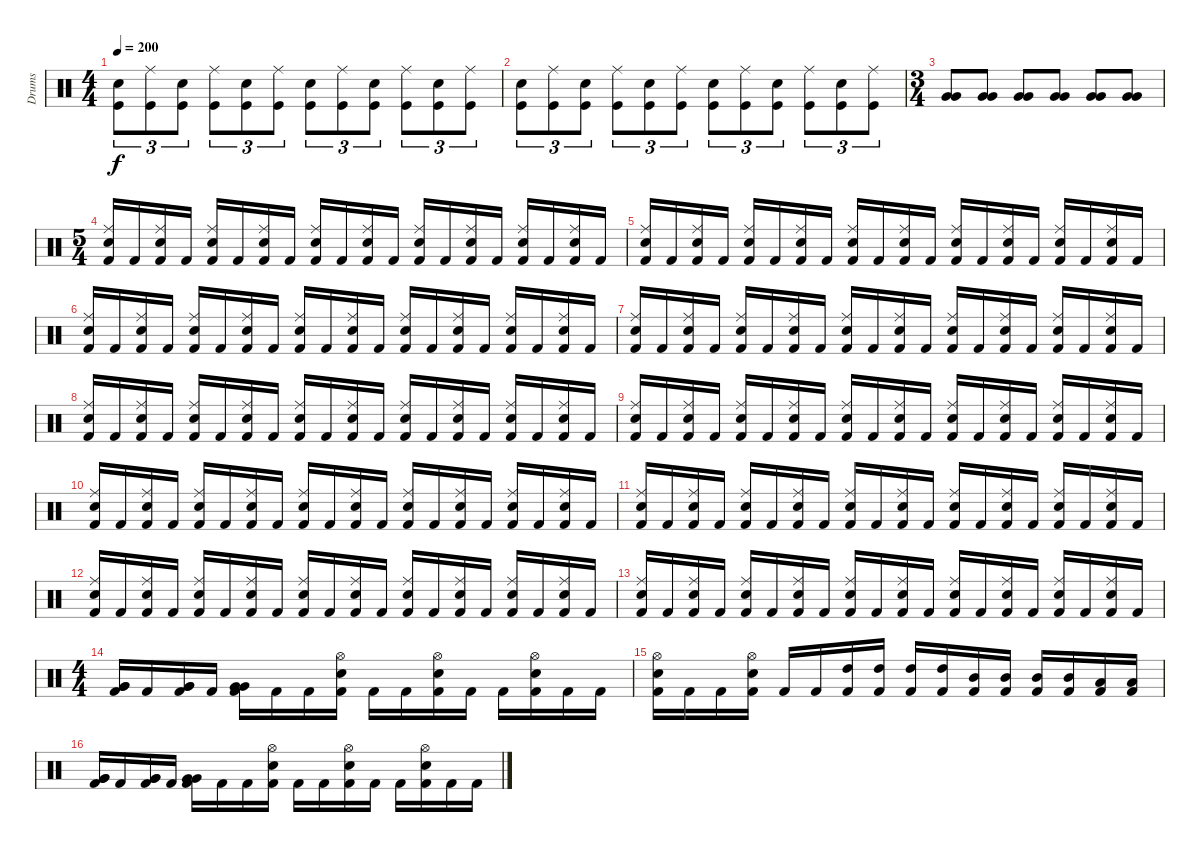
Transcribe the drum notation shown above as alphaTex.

\track ("Drums" "Drums") {instrument percussion}
\staff {score}
\articulation defaults
\ts (4 4)
\tempo 200
\clef neutral
\ks c
("Electric Snare (hit)" "Kick (hit)").8{tu (3 2) dy f} ("Ride (middle)" "Kick (hit)").8{tu (3 2)} ("Electric Snare (hit)" "Kick (hit)").8{tu (3 2)} ("Ride (middle)" "Kick (hit)").8{tu (3 2)} ("Electric Snare (hit)" "Kick (hit)").8{tu (3 2)} ("Ride (middle)" "Kick (hit)").8{tu (3 2)} ("Electric Snare (hit)" "Kick (hit)").8{tu (3 2)} ("Ride (middle)" "Kick (hit)").8{tu (3 2)} ("Electric Snare (hit)" "Kick (hit)").8{tu (3 2)} ("Ride (middle)" "Kick (hit)").8{tu (3 2)} ("Electric Snare (hit)" "Kick (hit)").8{tu (3 2)} ("Ride (middle)" "Kick (hit)").8{tu (3 2)} |
("Electric Snare (hit)" "Kick (hit)").8{tu (3 2)} ("Ride (middle)" "Kick (hit)").8{tu (3 2)} ("Electric Snare (hit)" "Kick (hit)").8{tu (3 2)} ("Ride (middle)" "Kick (hit)").8{tu (3 2)} ("Electric Snare (hit)" "Kick (hit)").8{tu (3 2)} ("Ride (middle)" "Kick (hit)").8{tu (3 2)} ("Electric Snare (hit)" "Kick (hit)").8{tu (3 2)} ("Ride (middle)" "Kick (hit)").8{tu (3 2)} ("Electric Snare (hit)" "Kick (hit)").8{tu (3 2)} ("Ride (middle)" "Kick (hit)").8{tu (3 2)} ("Electric Snare (hit)" "Kick (hit)").8{tu (3 2)} ("Ride (middle)" "Kick (hit)").8{tu (3 2)} |
\ts (3 4)
("Very Low Tom (hit)" "Very Low Tom (hit)").8 ("Very Low Tom (hit)" "Very Low Tom (hit)").8 ("Very Low Tom (hit)" "Very Low Tom (hit)").8 ("Very Low Tom (hit)" "Very Low Tom (hit)").8 ("Very Low Tom (hit)" "Very Low Tom (hit)").8 ("Very Low Tom (hit)" "Very Low Tom (hit)").8 |
\ts (5 4)
("Ride (middle)" "Electric Snare (hit)" "Kick (hit) 2").16 "Kick (hit) 2".16 ("Ride (middle)" "Electric Snare (hit)" "Kick (hit) 2").16 "Kick (hit) 2".16 ("Ride (middle)" "Electric Snare (hit)" "Kick (hit) 2").16 "Kick (hit) 2".16 ("Ride (middle)" "Electric Snare (hit)" "Kick (hit) 2").16 "Kick (hit) 2".16 ("Ride (middle)" "Electric Snare (hit)" "Kick (hit) 2").16 "Kick (hit) 2".16 ("Ride (middle)" "Electric Snare (hit)" "Kick (hit) 2").16 "Kick (hit) 2".16 ("Ride (middle)" "Electric Snare (hit)" "Kick (hit) 2").16 "Kick (hit) 2".16 ("Ride (middle)" "Electric Snare (hit)" "Kick (hit) 2").16 "Kick (hit) 2".16 ("Ride (middle)" "Electric Snare (hit)" "Kick (hit) 2").16 "Kick (hit) 2".16 ("Ride (middle)" "Electric Snare (hit)" "Kick (hit) 2").16 "Kick (hit) 2".16 |
("Ride (middle)" "Electric Snare (hit)" "Kick (hit) 2").16 "Kick (hit) 2".16 ("Ride (middle)" "Electric Snare (hit)" "Kick (hit) 2").16 "Kick (hit) 2".16 ("Ride (middle)" "Electric Snare (hit)" "Kick (hit) 2").16 "Kick (hit) 2".16 ("Ride (middle)" "Electric Snare (hit)" "Kick (hit) 2").16 "Kick (hit) 2".16 ("Ride (middle)" "Electric Snare (hit)" "Kick (hit) 2").16 "Kick (hit) 2".16 ("Ride (middle)" "Electric Snare (hit)" "Kick (hit) 2").16 "Kick (hit) 2".16 ("Ride (middle)" "Electric Snare (hit)" "Kick (hit) 2").16 "Kick (hit) 2".16 ("Ride (middle)" "Electric Snare (hit)" "Kick (hit) 2").16 "Kick (hit) 2".16 ("Ride (middle)" "Electric Snare (hit)" "Kick (hit) 2").16 "Kick (hit) 2".16 ("Ride (middle)" "Electric Snare (hit)" "Kick (hit) 2").16 "Kick (hit) 2".16 |
("Ride (middle)" "Electric Snare (hit)" "Kick (hit) 2").16 "Kick (hit) 2".16 ("Ride (middle)" "Electric Snare (hit)" "Kick (hit) 2").16 "Kick (hit) 2".16 ("Ride (middle)" "Electric Snare (hit)" "Kick (hit) 2").16 "Kick (hit) 2".16 ("Ride (middle)" "Electric Snare (hit)" "Kick (hit) 2").16 "Kick (hit) 2".16 ("Ride (middle)" "Electric Snare (hit)" "Kick (hit) 2").16 "Kick (hit) 2".16 ("Ride (middle)" "Electric Snare (hit)" "Kick (hit) 2").16 "Kick (hit) 2".16 ("Ride (middle)" "Electric Snare (hit)" "Kick (hit) 2").16 "Kick (hit) 2".16 ("Ride (middle)" "Electric Snare (hit)" "Kick (hit) 2").16 "Kick (hit) 2".16 ("Ride (middle)" "Electric Snare (hit)" "Kick (hit) 2").16 "Kick (hit) 2".16 ("Ride (middle)" "Electric Snare (hit)" "Kick (hit) 2").16 "Kick (hit) 2".16 |
("Ride (middle)" "Electric Snare (hit)" "Kick (hit) 2").16 "Kick (hit) 2".16 ("Ride (middle)" "Electric Snare (hit)" "Kick (hit) 2").16 "Kick (hit) 2".16 ("Ride (middle)" "Electric Snare (hit)" "Kick (hit) 2").16 "Kick (hit) 2".16 ("Ride (middle)" "Electric Snare (hit)" "Kick (hit) 2").16 "Kick (hit) 2".16 ("Ride (middle)" "Electric Snare (hit)" "Kick (hit) 2").16 "Kick (hit) 2".16 ("Ride (middle)" "Electric Snare (hit)" "Kick (hit) 2").16 "Kick (hit) 2".16 ("Ride (middle)" "Electric Snare (hit)" "Kick (hit) 2").16 "Kick (hit) 2".16 ("Ride (middle)" "Electric Snare (hit)" "Kick (hit) 2").16 "Kick (hit) 2".16 ("Ride (middle)" "Electric Snare (hit)" "Kick (hit) 2").16 "Kick (hit) 2".16 ("Ride (middle)" "Electric Snare (hit)" "Kick (hit) 2").16 "Kick (hit) 2".16 |
("Ride (middle)" "Electric Snare (hit)" "Kick (hit) 2").16 "Kick (hit) 2".16 ("Ride (middle)" "Electric Snare (hit)" "Kick (hit) 2").16 "Kick (hit) 2".16 ("Ride (middle)" "Electric Snare (hit)" "Kick (hit) 2").16 "Kick (hit) 2".16 ("Ride (middle)" "Electric Snare (hit)" "Kick (hit) 2").16 "Kick (hit) 2".16 ("Ride (middle)" "Electric Snare (hit)" "Kick (hit) 2").16 "Kick (hit) 2".16 ("Ride (middle)" "Electric Snare (hit)" "Kick (hit) 2").16 "Kick (hit) 2".16 ("Ride (middle)" "Electric Snare (hit)" "Kick (hit) 2").16 "Kick (hit) 2".16 ("Ride (middle)" "Electric Snare (hit)" "Kick (hit) 2").16 "Kick (hit) 2".16 ("Ride (middle)" "Electric Snare (hit)" "Kick (hit) 2").16 "Kick (hit) 2".16 ("Ride (middle)" "Electric Snare (hit)" "Kick (hit) 2").16 "Kick (hit) 2".16 |
("Ride (middle)" "Electric Snare (hit)" "Kick (hit) 2").16 "Kick (hit) 2".16 ("Ride (middle)" "Electric Snare (hit)" "Kick (hit) 2").16 "Kick (hit) 2".16 ("Ride (middle)" "Electric Snare (hit)" "Kick (hit) 2").16 "Kick (hit) 2".16 ("Ride (middle)" "Electric Snare (hit)" "Kick (hit) 2").16 "Kick (hit) 2".16 ("Ride (middle)" "Electric Snare (hit)" "Kick (hit) 2").16 "Kick (hit) 2".16 ("Ride (middle)" "Electric Snare (hit)" "Kick (hit) 2").16 "Kick (hit) 2".16 ("Ride (middle)" "Electric Snare (hit)" "Kick (hit) 2").16 "Kick (hit) 2".16 ("Ride (middle)" "Electric Snare (hit)" "Kick (hit) 2").16 "Kick (hit) 2".16 ("Ride (middle)" "Electric Snare (hit)" "Kick (hit) 2").16 "Kick (hit) 2".16 ("Ride (middle)" "Electric Snare (hit)" "Kick (hit) 2").16 "Kick (hit) 2".16 |
("Ride (middle)" "Electric Snare (hit)" "Kick (hit) 2").16 "Kick (hit) 2".16 ("Ride (middle)" "Electric Snare (hit)" "Kick (hit) 2").16 "Kick (hit) 2".16 ("Ride (middle)" "Electric Snare (hit)" "Kick (hit) 2").16 "Kick (hit) 2".16 ("Ride (middle)" "Electric Snare (hit)" "Kick (hit) 2").16 "Kick (hit) 2".16 ("Ride (middle)" "Electric Snare (hit)" "Kick (hit) 2").16 "Kick (hit) 2".16 ("Ride (middle)" "Electric Snare (hit)" "Kick (hit) 2").16 "Kick (hit) 2".16 ("Ride (middle)" "Electric Snare (hit)" "Kick (hit) 2").16 "Kick (hit) 2".16 ("Ride (middle)" "Electric Snare (hit)" "Kick (hit) 2").16 "Kick (hit) 2".16 ("Ride (middle)" "Electric Snare (hit)" "Kick (hit) 2").16 "Kick (hit) 2".16 ("Ride (middle)" "Electric Snare (hit)" "Kick (hit) 2").16 "Kick (hit) 2".16 |
("Ride (middle)" "Electric Snare (hit)" "Kick (hit) 2").16 "Kick (hit) 2".16 ("Ride (middle)" "Electric Snare (hit)" "Kick (hit) 2").16 "Kick (hit) 2".16 ("Ride (middle)" "Electric Snare (hit)" "Kick (hit) 2").16 "Kick (hit) 2".16 ("Ride (middle)" "Electric Snare (hit)" "Kick (hit) 2").16 "Kick (hit) 2".16 ("Ride (middle)" "Electric Snare (hit)" "Kick (hit) 2").16 "Kick (hit) 2".16 ("Ride (middle)" "Electric Snare (hit)" "Kick (hit) 2").16 "Kick (hit) 2".16 ("Ride (middle)" "Electric Snare (hit)" "Kick (hit) 2").16 "Kick (hit) 2".16 ("Ride (middle)" "Electric Snare (hit)" "Kick (hit) 2").16 "Kick (hit) 2".16 ("Ride (middle)" "Electric Snare (hit)" "Kick (hit) 2").16 "Kick (hit) 2".16 ("Ride (middle)" "Electric Snare (hit)" "Kick (hit) 2").16 "Kick (hit) 2".16 |
("Ride (middle)" "Electric Snare (hit)" "Kick (hit) 2").16 "Kick (hit) 2".16 ("Ride (middle)" "Electric Snare (hit)" "Kick (hit) 2").16 "Kick (hit) 2".16 ("Ride (middle)" "Electric Snare (hit)" "Kick (hit) 2").16 "Kick (hit) 2".16 ("Ride (middle)" "Electric Snare (hit)" "Kick (hit) 2").16 "Kick (hit) 2".16 ("Ride (middle)" "Electric Snare (hit)" "Kick (hit) 2").16 "Kick (hit) 2".16 ("Ride (middle)" "Electric Snare (hit)" "Kick (hit) 2").16 "Kick (hit) 2".16 ("Ride (middle)" "Electric Snare (hit)" "Kick (hit) 2").16 "Kick (hit) 2".16 ("Ride (middle)" "Electric Snare (hit)" "Kick (hit) 2").16 "Kick (hit) 2".16 ("Ride (middle)" "Electric Snare (hit)" "Kick (hit) 2").16 "Kick (hit) 2".16 ("Ride (middle)" "Electric Snare (hit)" "Kick (hit) 2").16 "Kick (hit) 2".16 |
("Ride (middle)" "Electric Snare (hit)" "Kick (hit) 2").16 "Kick (hit) 2".16 ("Ride (middle)" "Electric Snare (hit)" "Kick (hit) 2").16 "Kick (hit) 2".16 ("Ride (middle)" "Electric Snare (hit)" "Kick (hit) 2").16 "Kick (hit) 2".16 ("Ride (middle)" "Electric Snare (hit)" "Kick (hit) 2").16 "Kick (hit) 2".16 ("Ride (middle)" "Electric Snare (hit)" "Kick (hit) 2").16 "Kick (hit) 2".16 ("Ride (middle)" "Electric Snare (hit)" "Kick (hit) 2").16 "Kick (hit) 2".16 ("Ride (middle)" "Electric Snare (hit)" "Kick (hit) 2").16 "Kick (hit) 2".16 ("Ride (middle)" "Electric Snare (hit)" "Kick (hit) 2").16 "Kick (hit) 2".16 ("Ride (middle)" "Electric Snare (hit)" "Kick (hit) 2").16 "Kick (hit) 2".16 ("Ride (middle)" "Electric Snare (hit)" "Kick (hit) 2").16 "Kick (hit) 2".16 |
\ts (4 4)
("Very Low Tom (hit)" "Very Low Tom (hit)" "Kick (hit) 2").16 "Kick (hit) 2".16 ("Very Low Tom (hit)" "Very Low Tom (hit)" "Kick (hit) 2").16 "Kick (hit) 2".16 ("Very Low Tom (hit)" "Very Low Tom (hit)" "Kick (hit) 2").16 "Kick (hit) 2".16 "Kick (hit) 2".16 ("Hi-Hat (open)" "Electric Snare (hit)" "Kick (hit) 2").16 "Kick (hit) 2".16 "Kick (hit) 2".16 ("Hi-Hat (open)" "Electric Snare (hit)" "Kick (hit) 2").16 "Kick (hit) 2".16 "Kick (hit) 2".16 ("Hi-Hat (open)" "Electric Snare (hit)" "Kick (hit) 2").16 "Kick (hit) 2".16 "Kick (hit) 2".16 |
("Hi-Hat (open)" "Electric Snare (hit)" "Kick (hit) 2").16 "Kick (hit) 2".16 "Kick (hit) 2".16 ("Hi-Hat (open)" "Electric Snare (hit)" "Kick (hit) 2").16 "Kick (hit) 2".16 "Kick (hit) 2".16 ("High Tom (hit)" "Kick (hit) 2").16 ("High Tom (hit)" "Kick (hit) 2").16 ("High Tom (hit)" "Kick (hit) 2").16 ("High Tom (hit)" "Kick (hit) 2").16 ("Mid Tom (hit)" "Kick (hit) 2").16 ("Mid Tom (hit)" "Kick (hit) 2").16 ("Mid Tom (hit)" "Kick (hit) 2").16 ("Mid Tom (hit)" "Kick (hit) 2").16 ("Low Tom (hit)" "Kick (hit) 2").16 ("Low Tom (hit)" "Kick (hit) 2").16 |
("Very Low Tom (hit)" "Very Low Tom (hit)" "Kick (hit) 2").16 "Kick (hit) 2".16 ("Very Low Tom (hit)" "Very Low Tom (hit)" "Kick (hit) 2").16 "Kick (hit) 2".16 ("Very Low Tom (hit)" "Very Low Tom (hit)" "Kick (hit) 2").16 "Kick (hit) 2".16 "Kick (hit) 2".16 ("Hi-Hat (open)" "Electric Snare (hit)" "Kick (hit) 2").16 "Kick (hit) 2".16 "Kick (hit) 2".16 ("Hi-Hat (open)" "Electric Snare (hit)" "Kick (hit) 2").16 "Kick (hit) 2".16 "Kick (hit) 2".16 ("Hi-Hat (open)" "Electric Snare (hit)" "Kick (hit) 2").16 "Kick (hit) 2".16 "Kick (hit) 2".16
